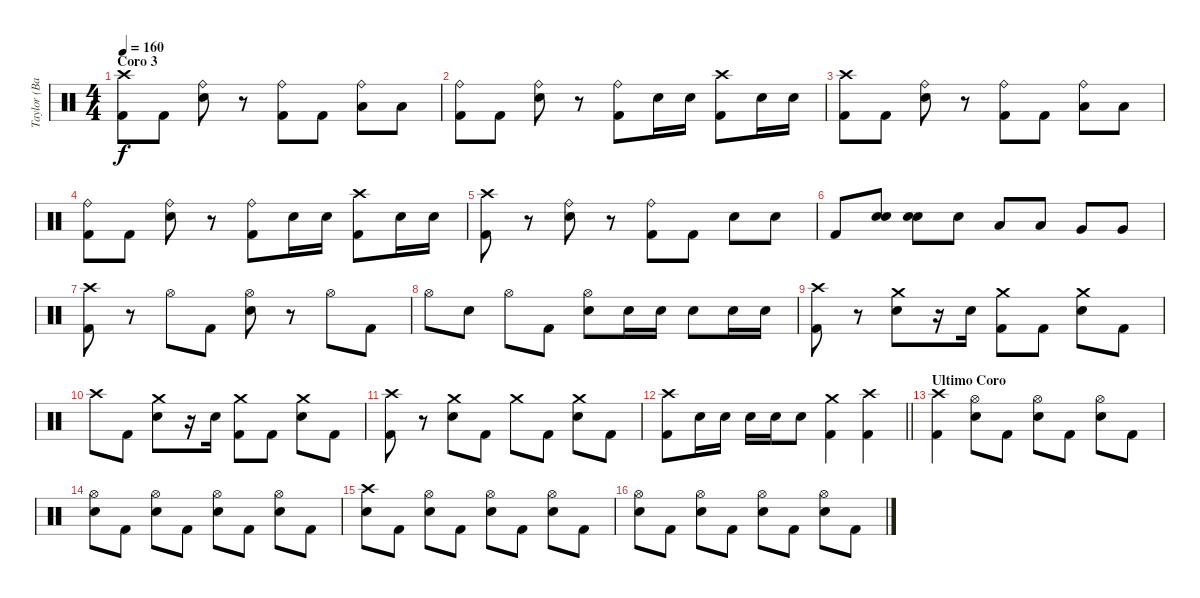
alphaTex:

\track ("Taylor (Batería)" "Taylor (Ba") {instrument percussion}
\staff {score}
\articulation defaults
\ts (4 4)
\section ("" "Coro 3")
\tempo 160
\clef neutral
\ks c
("Crash high (hit)" "Kick (hit) 2").8{dy f} "Kick (hit) 2".8 ("Ride (bell)" "Electric Snare (hit)").8 r.8 ("Ride (bell)" "Kick (hit) 2").8 "Kick (hit) 2".8 ("Ride (bell)" "Low Tom (hit)").8 "Low Tom (hit)".8 |
("Ride (bell)" "Kick (hit) 2").8 "Kick (hit) 2".8 ("Ride (bell)" "Electric Snare (hit)").8 r.8 ("Ride (bell)" "Kick (hit) 2").8 "Electric Snare (hit)".16 "Electric Snare (hit)".16 ("Crash high (hit)" "Kick (hit) 2").8 "Electric Snare (hit)".16 "Electric Snare (hit)".16 |
("Crash high (hit)" "Kick (hit) 2").8 "Kick (hit) 2".8 ("Ride (bell)" "Electric Snare (hit)").8 r.8 ("Ride (bell)" "Kick (hit) 2").8 "Kick (hit) 2".8 ("Ride (bell)" "Low Tom (hit)").8 "Low Tom (hit)".8 |
("Ride (bell)" "Kick (hit) 2").8 "Kick (hit) 2".8 ("Ride (bell)" "Electric Snare (hit)").8 r.8 ("Ride (bell)" "Kick (hit) 2").8 "Electric Snare (hit)".16 "Electric Snare (hit)".16 ("Crash high (hit)" "Kick (hit) 2").8 "Electric Snare (hit)".16 "Electric Snare (hit)".16 |
("Crash high (hit)" "Kick (hit) 2").8 r.8 ("Ride (bell)" "Electric Snare (hit)").8 r.8 ("Ride (bell)" "Kick (hit) 2").8 "Kick (hit) 2".8 "Electric Snare (hit)".8 "Electric Snare (hit)".8 |
"Kick (hit) 2".8 ("Electric Snare (hit)" "Electric Snare (hit)").8 ("Electric Snare (hit)" "Electric Snare (hit)").8 "Electric Snare (hit)".8 "Low Tom (hit)".8 "Low Tom (hit)".8 "Very Low Tom (hit)".8 "Very Low Tom (hit)".8 |
("Crash high (hit)" "Kick (hit) 2").8 r.8 "Hi-Hat (open)".8 "Kick (hit) 2".8 ("Hi-Hat (open)" "Electric Snare (hit)").8 r.8 "Hi-Hat (open)".8 "Kick (hit) 2".8 |
"Hi-Hat (open)".8 "Electric Snare (hit)".8 "Hi-Hat (open)".8 "Kick (hit) 2".8 ("Hi-Hat (open)" "Electric Snare (hit)").8 "Electric Snare (hit)".16 "Electric Snare (hit)".16 "Electric Snare (hit)".8 "Electric Snare (hit)".16 "Electric Snare (hit)".16 |
("Crash high (hit)" "Kick (hit) 2").8 r.8 ("Crash medium (hit)" "Electric Snare (hit)").8 r.16 "Electric Snare (hit)".16 ("Crash medium (hit)" "Kick (hit) 2").8 "Kick (hit) 2".8 ("Crash medium (hit)" "Electric Snare (hit)").8 "Kick (hit) 2".8 |
"Crash high (hit)".8 "Kick (hit) 2".8 ("Crash medium (hit)" "Electric Snare (hit)").8 r.16 "Electric Snare (hit)".16 ("Crash medium (hit)" "Kick (hit) 2").8 "Kick (hit) 2".8 ("Crash medium (hit)" "Electric Snare (hit)").8 "Kick (hit) 2".8 |
("Crash high (hit)" "Kick (hit) 2").8 r.8 ("Crash medium (hit)" "Electric Snare (hit)").8 "Kick (hit) 2".8 "Crash medium (hit)".8 "Kick (hit) 2".8 ("Crash medium (hit)" "Electric Snare (hit)").8 "Kick (hit) 2".8 |
\barLineRight lightlight
("Crash high (hit)" "Kick (hit) 2").8 "Electric Snare (hit)".16 "Electric Snare (hit)".16 "Electric Snare (hit)".16 "Electric Snare (hit)".16 "Electric Snare (hit)".8 ("Crash medium (hit)" "Kick (hit) 2").4 ("Crash high (hit)" "Kick (hit) 2").4 |
\section ("" "Ultimo Coro")
("Crash high (hit)" "Kick (hit) 2").4 ("Hi-Hat (open)" "Electric Snare (hit)").8 "Kick (hit) 2".8 ("Hi-Hat (open)" "Electric Snare (hit)").8 "Kick (hit) 2".8 ("Hi-Hat (open)" "Electric Snare (hit)").8 "Kick (hit) 2".8 |
("Hi-Hat (open)" "Electric Snare (hit)").8 "Kick (hit) 2".8 ("Hi-Hat (open)" "Electric Snare (hit)").8 "Kick (hit) 2".8 ("Hi-Hat (open)" "Electric Snare (hit)").8 "Kick (hit) 2".8 ("Hi-Hat (open)" "Electric Snare (hit)").8 "Kick (hit) 2".8 |
("Crash high (hit)" "Electric Snare (hit)").8 "Kick (hit) 2".8 ("Hi-Hat (open)" "Electric Snare (hit)").8 "Kick (hit) 2".8 ("Hi-Hat (open)" "Electric Snare (hit)").8 "Kick (hit) 2".8 ("Hi-Hat (open)" "Electric Snare (hit)").8 "Kick (hit) 2".8 |
("Hi-Hat (open)" "Electric Snare (hit)").8 "Kick (hit) 2".8 ("Hi-Hat (open)" "Electric Snare (hit)").8 "Kick (hit) 2".8 ("Hi-Hat (open)" "Electric Snare (hit)").8 "Kick (hit) 2".8 ("Hi-Hat (open)" "Electric Snare (hit)").8 "Kick (hit) 2".8
